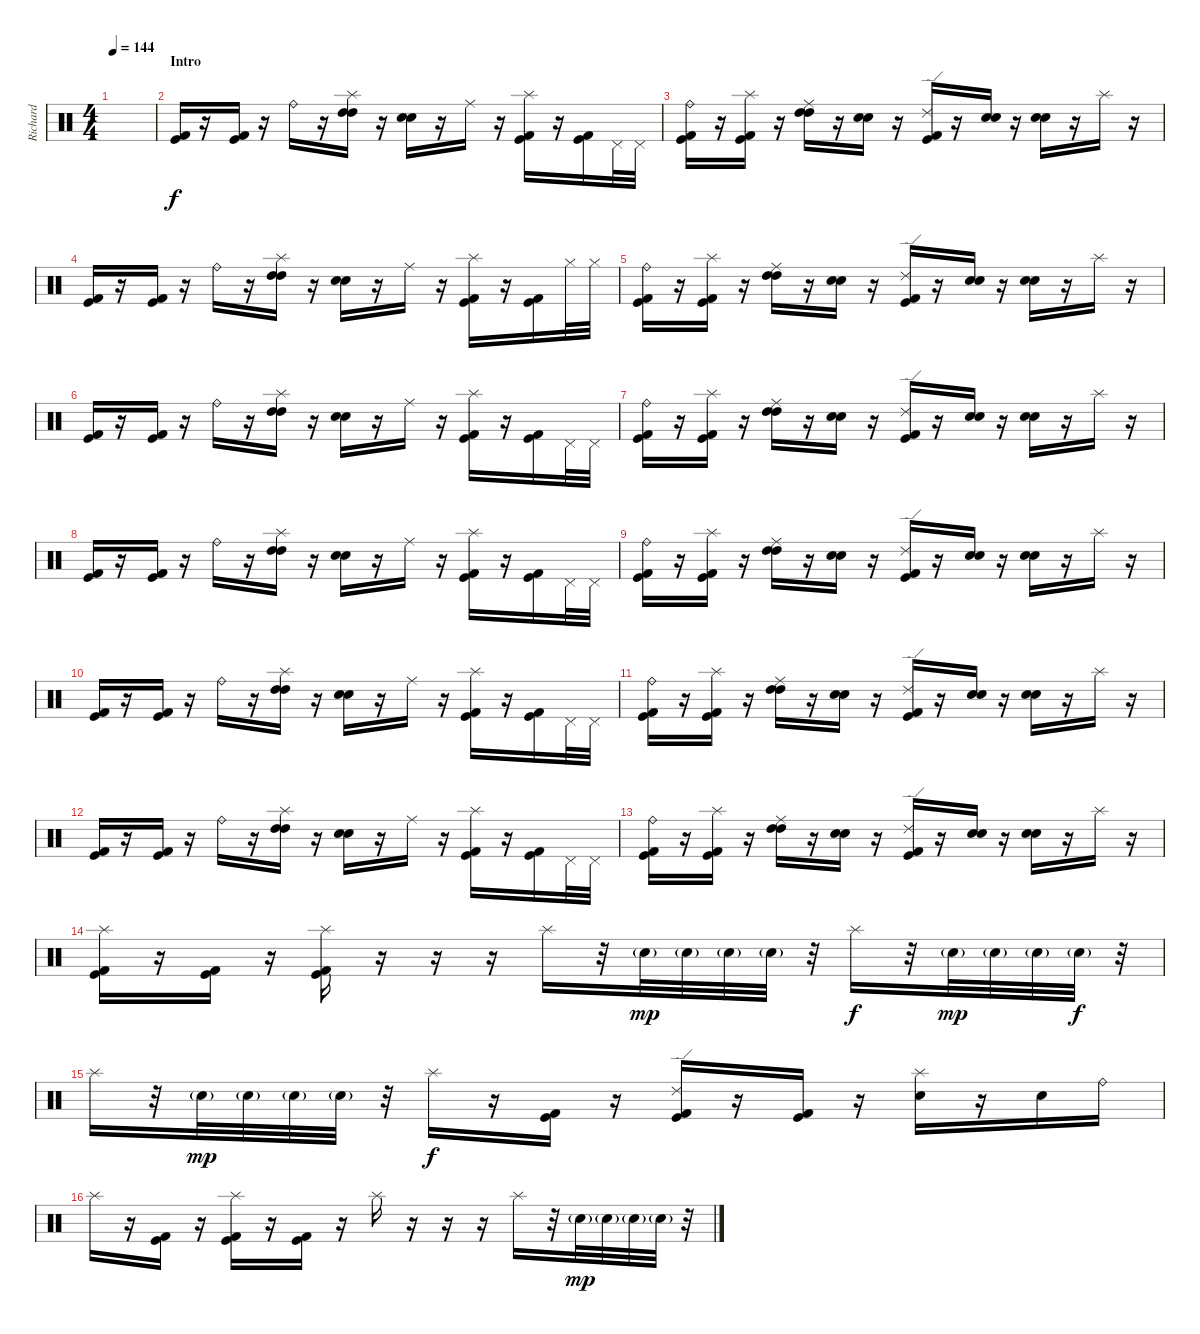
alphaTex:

\track ("Richard" "Richard") {instrument percussion}
\staff {score}
\articulation defaults
\ts (4 4)
\tempo 144
\clef neutral
\ks c
|
\section ("" "Intro")
("Kick (hit) 2" "Kick (hit)").16 r.16 ("Kick (hit) 2" "Kick (hit)").16 r.16 "Ride (bell)".16 r.16 ("Splash (hit)" "High Tom (hit)" "High Tom (hit)").16 r.16 ("Snare (hit) 2" "Electric Snare (hit)").16 r.16 "Ride (middle)".16 r.16 ("Splash (hit)" "Kick (hit) 2" "Kick (hit)").16 r.16 ("Kick (hit) 2" "Kick (hit)").16 "Pedal Hi-Hat (hit)".32 "Pedal Hi-Hat (hit)".32 |
("Ride (bell)" "Kick (hit)" "Kick (hit) 2").16 r.16 ("Splash (hit)" "Kick (hit)" "Kick (hit) 2").16 r.16 ("Ride (middle)" "High Tom (hit)" "High Tom (hit)").16 r.16 ("Snare (hit) 2" "Electric Snare (hit)").16 r.16 ("Ride (edge) 2" "Kick (hit)" "Kick (hit) 2").16 r.16 ("Snare (hit) 2" "Electric Snare (hit)").16 r.16 ("Snare (hit) 2" "Electric Snare (hit)").16 r.16 "Splash (hit)".16 r.16 |
("Kick (hit) 2" "Kick (hit)").16 r.16 ("Kick (hit) 2" "Kick (hit)").16 r.16 "Ride (bell)".16 r.16 ("Splash (hit)" "High Tom (hit)" "High Tom (hit)").16 r.16 ("Snare (hit) 2" "Electric Snare (hit)").16 r.16 "Ride (middle)".16 r.16 ("Splash (hit)" "Kick (hit) 2" "Kick (hit)").16 r.16 ("Kick (hit) 2" "Kick (hit)").16 "Hi-Hat (closed)".32 "Hi-Hat (closed)".32 |
("Ride (bell)" "Kick (hit)" "Kick (hit) 2").16 r.16 ("Splash (hit)" "Kick (hit)" "Kick (hit) 2").16 r.16 ("Ride (middle)" "High Tom (hit)" "High Tom (hit)").16 r.16 ("Snare (hit) 2" "Electric Snare (hit)").16 r.16 ("Ride (edge) 2" "Kick (hit)" "Kick (hit) 2").16 r.16 ("Snare (hit) 2" "Electric Snare (hit)").16 r.16 ("Snare (hit) 2" "Electric Snare (hit)").16 r.16 "Splash (hit)".16 r.16 |
("Kick (hit) 2" "Kick (hit)").16 r.16 ("Kick (hit) 2" "Kick (hit)").16 r.16 "Ride (bell)".16 r.16 ("Splash (hit)" "High Tom (hit)" "High Tom (hit)").16 r.16 ("Snare (hit) 2" "Electric Snare (hit)").16 r.16 "Ride (middle)".16 r.16 ("Splash (hit)" "Kick (hit) 2" "Kick (hit)").16 r.16 ("Kick (hit) 2" "Kick (hit)").16 "Pedal Hi-Hat (hit)".32 "Pedal Hi-Hat (hit)".32 |
("Ride (bell)" "Kick (hit)" "Kick (hit) 2").16 r.16 ("Splash (hit)" "Kick (hit)" "Kick (hit) 2").16 r.16 ("Ride (middle)" "High Tom (hit)" "High Tom (hit)").16 r.16 ("Snare (hit) 2" "Electric Snare (hit)").16 r.16 ("Ride (edge) 2" "Kick (hit)" "Kick (hit) 2").16 r.16 ("Snare (hit) 2" "Electric Snare (hit)").16 r.16 ("Snare (hit) 2" "Electric Snare (hit)").16 r.16 "Splash (hit)".16 r.16 |
("Kick (hit) 2" "Kick (hit)").16 r.16 ("Kick (hit) 2" "Kick (hit)").16 r.16 "Ride (bell)".16 r.16 ("Splash (hit)" "High Tom (hit)" "High Tom (hit)").16 r.16 ("Snare (hit) 2" "Electric Snare (hit)").16 r.16 "Ride (middle)".16 r.16 ("Splash (hit)" "Kick (hit) 2" "Kick (hit)").16 r.16 ("Kick (hit) 2" "Kick (hit)").16 "Pedal Hi-Hat (hit)".32 "Pedal Hi-Hat (hit)".32 |
("Ride (bell)" "Kick (hit)" "Kick (hit) 2").16 r.16 ("Splash (hit)" "Kick (hit)" "Kick (hit) 2").16 r.16 ("Ride (middle)" "High Tom (hit)" "High Tom (hit)").16 r.16 ("Snare (hit) 2" "Electric Snare (hit)").16 r.16 ("Ride (edge) 2" "Kick (hit)" "Kick (hit) 2").16 r.16 ("Snare (hit) 2" "Electric Snare (hit)").16 r.16 ("Snare (hit) 2" "Electric Snare (hit)").16 r.16 "Splash (hit)".16 r.16 |
("Kick (hit) 2" "Kick (hit)").16 r.16 ("Kick (hit) 2" "Kick (hit)").16 r.16 "Ride (bell)".16 r.16 ("Splash (hit)" "High Tom (hit)" "High Tom (hit)").16 r.16 ("Snare (hit) 2" "Electric Snare (hit)").16 r.16 "Ride (middle)".16 r.16 ("Splash (hit)" "Kick (hit) 2" "Kick (hit)").16 r.16 ("Kick (hit) 2" "Kick (hit)").16 "Pedal Hi-Hat (hit)".32 "Pedal Hi-Hat (hit)".32 |
("Ride (bell)" "Kick (hit)" "Kick (hit) 2").16 r.16 ("Splash (hit)" "Kick (hit)" "Kick (hit) 2").16 r.16 ("Ride (middle)" "High Tom (hit)" "High Tom (hit)").16 r.16 ("Snare (hit) 2" "Electric Snare (hit)").16 r.16 ("Ride (edge) 2" "Kick (hit)" "Kick (hit) 2").16 r.16 ("Snare (hit) 2" "Electric Snare (hit)").16 r.16 ("Snare (hit) 2" "Electric Snare (hit)").16 r.16 "Splash (hit)".16 r.16 |
("Kick (hit) 2" "Kick (hit)").16 r.16 ("Kick (hit) 2" "Kick (hit)").16 r.16 "Ride (bell)".16 r.16 ("Splash (hit)" "High Tom (hit)" "High Tom (hit)").16 r.16 ("Snare (hit) 2" "Electric Snare (hit)").16 r.16 "Ride (middle)".16 r.16 ("Splash (hit)" "Kick (hit) 2" "Kick (hit)").16 r.16 ("Kick (hit) 2" "Kick (hit)").16 "Pedal Hi-Hat (hit)".32 "Pedal Hi-Hat (hit)".32 |
("Ride (bell)" "Kick (hit)" "Kick (hit) 2").16 r.16 ("Splash (hit)" "Kick (hit)" "Kick (hit) 2").16 r.16 ("Ride (middle)" "High Tom (hit)" "High Tom (hit)").16 r.16 ("Snare (hit) 2" "Electric Snare (hit)").16 r.16 ("Ride (edge) 2" "Kick (hit)" "Kick (hit) 2").16 r.16 ("Snare (hit) 2" "Electric Snare (hit)").16 r.16 ("Snare (hit) 2" "Electric Snare (hit)").16 r.16 "Splash (hit)".16 r.16 |
("Splash (hit)" "Kick (hit) 2" "Kick (hit)").16 r.16 ("Kick (hit) 2" "Kick (hit)").16 r.16 ("Splash (hit)" "Kick (hit) 2" "Kick (hit)").16 r.16 r.16 r.16 "Splash (hit)".16 r.32 "Snare (hit) 2"{g}.32{dy mp} "Snare (hit) 2"{g}.32 "Snare (hit) 2"{g}.32 "Snare (hit) 2"{g}.32 r.32 "Splash (hit)".16{dy f} r.32 "Snare (hit) 2"{g}.32{dy mp} "Snare (hit) 2"{g}.32 "Snare (hit) 2"{g}.32 "Snare (hit) 2"{g}.32{dy f} r.32 |
"Splash (hit)".16 r.32 "Snare (hit) 2"{g}.32{dy mp} "Snare (hit) 2"{g}.32 "Snare (hit) 2"{g}.32 "Snare (hit) 2"{g}.32 r.32 "Splash (hit)".16{dy f} r.16 ("Kick (hit) 2" "Kick (hit)").16 r.16 ("Ride (edge) 2" "Kick (hit) 2" "Kick (hit)").16 r.16 ("Kick (hit) 2" "Kick (hit)").16 r.16 ("Splash (hit)" "Snare (hit) 2").16 r.16 "Snare (hit) 2".16 "Ride (bell)".16 |
"Splash (hit)".16 r.16 ("Kick (hit) 2" "Kick (hit)").16 r.16 ("Splash (hit)" "Kick (hit) 2" "Kick (hit)").16 r.16 ("Kick (hit) 2" "Kick (hit)").16 r.16 "Splash (hit)".16 r.16 r.16 r.16 "Splash (hit)".16 r.32 "Snare (hit) 2"{g}.32{dy mp} "Snare (hit) 2"{g}.32 "Snare (hit) 2"{g}.32 "Snare (hit) 2"{g}.32 r.32
